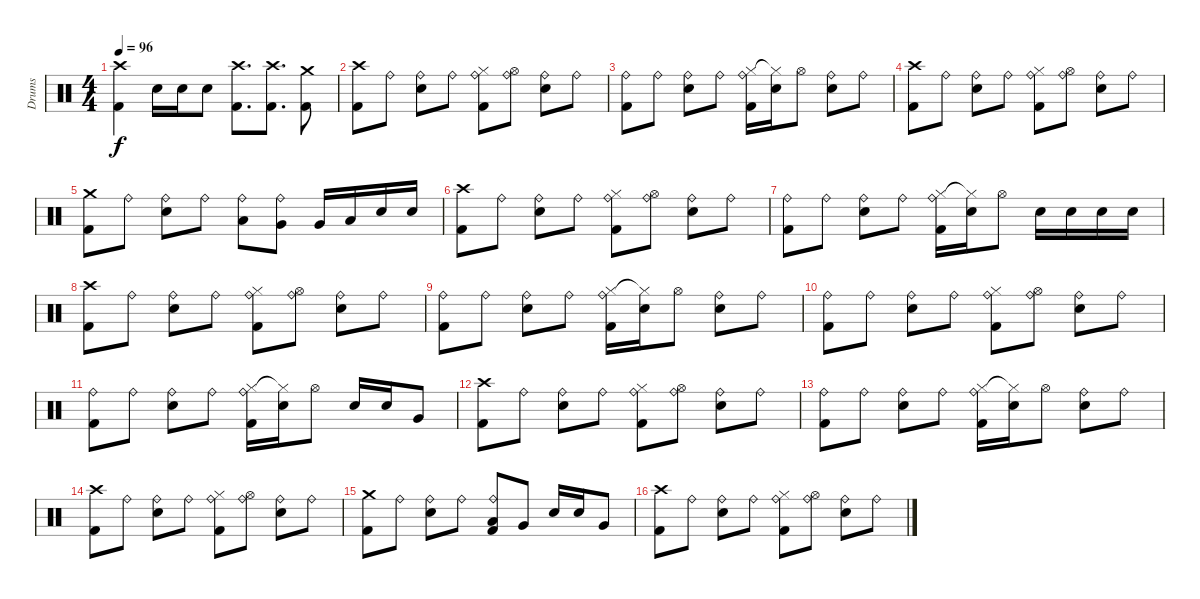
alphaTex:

\track ("Drums" "Drums") {instrument percussion}
\staff {score}
\articulation defaults
\ts (4 4)
\tempo 96
\clef neutral
\ks c
("Crash high (hit)" "Kick (hit) 2").4{dy f} "Electric Snare (hit)".16 "Electric Snare (hit)".16 "Electric Snare (hit)".8 ("Crash high (hit)" "Kick (hit) 2").8{d} ("Crash high (hit)" "Kick (hit) 2").8{d} ("Crash medium (hit)" "Kick (hit) 2").8 |
("Crash high (hit)" "Kick (hit) 2").8 "Ride (bell)".8 ("Ride (bell)" "Electric Snare (hit)").8 "Ride (bell)".8 ("Ride (bell)" "Hi-Hat (closed)" "Kick (hit) 2").8 ("Ride (bell)" "Hi-Hat (open)").8 ("Ride (bell)" "Electric Snare (hit)").8 "Ride (bell)".8 |
("Ride (bell)" "Kick (hit) 2").8 "Ride (bell)".8 ("Ride (bell)" "Electric Snare (hit)").8 "Ride (bell)".8 ("Ride (bell)" "Hi-Hat (closed)" "Kick (hit) 2").16 ("Hi-Hat (closed)"{t} "Electric Snare (hit)").16 "Hi-Hat (open)".8 ("Ride (bell)" "Electric Snare (hit)").8 "Ride (bell)".8 |
("Crash high (hit)" "Kick (hit) 2").8 "Ride (bell)".8 ("Ride (bell)" "Electric Snare (hit)").8 "Ride (bell)".8 ("Ride (bell)" "Hi-Hat (closed)" "Kick (hit) 2").8 ("Ride (bell)" "Hi-Hat (open)").8 ("Ride (bell)" "Electric Snare (hit)").8 "Ride (bell)".8 |
("Crash medium (hit)" "Kick (hit) 2").8 "Ride (bell)".8 ("Ride (bell)" "Electric Snare (hit)").8 "Ride (bell)".8 ("Ride (bell)" "Low Tom (hit)").8 ("Ride (bell)" "Very Low Tom (hit)").8 "Very Low Tom (hit)".16 "Low Tom (hit)".16 "Electric Snare (hit)".16 "Electric Snare (hit)".16 |
("Crash high (hit)" "Kick (hit) 2").8 "Ride (bell)".8 ("Ride (bell)" "Electric Snare (hit)").8 "Ride (bell)".8 ("Ride (bell)" "Hi-Hat (closed)" "Kick (hit) 2").8 ("Ride (bell)" "Hi-Hat (open)").8 ("Ride (bell)" "Electric Snare (hit)").8 "Ride (bell)".8 |
("Ride (bell)" "Kick (hit) 2").8 "Ride (bell)".8 ("Ride (bell)" "Electric Snare (hit)").8 "Ride (bell)".8 ("Ride (bell)" "Hi-Hat (closed)" "Kick (hit) 2").16 ("Hi-Hat (closed)"{t} "Electric Snare (hit)").16 "Hi-Hat (open)".8 "Electric Snare (hit)".16 "Electric Snare (hit)".16 "Electric Snare (hit)".16 "Electric Snare (hit)".16 |
("Crash high (hit)" "Kick (hit) 2").8 "Ride (bell)".8 ("Ride (bell)" "Electric Snare (hit)").8 "Ride (bell)".8 ("Ride (bell)" "Hi-Hat (closed)" "Kick (hit) 2").8 ("Ride (bell)" "Hi-Hat (open)").8 ("Ride (bell)" "Electric Snare (hit)").8 "Ride (bell)".8 |
("Ride (bell)" "Kick (hit) 2").8 "Ride (bell)".8 ("Ride (bell)" "Electric Snare (hit)").8 "Ride (bell)".8 ("Ride (bell)" "Hi-Hat (closed)" "Kick (hit) 2").16 ("Hi-Hat (closed)"{t} "Electric Snare (hit)").16 "Hi-Hat (open)".8 ("Ride (bell)" "Electric Snare (hit)").8 "Ride (bell)".8 |
("Ride (bell)" "Kick (hit) 2").8 "Ride (bell)".8 ("Ride (bell)" "Electric Snare (hit)").8 "Ride (bell)".8 ("Ride (bell)" "Hi-Hat (closed)" "Kick (hit) 2").8 ("Ride (bell)" "Hi-Hat (open)").8 ("Ride (bell)" "Electric Snare (hit)").8 "Ride (bell)".8 |
("Ride (bell)" "Kick (hit) 2").8 "Ride (bell)".8 ("Ride (bell)" "Electric Snare (hit)").8 "Ride (bell)".8 ("Ride (bell)" "Hi-Hat (closed)" "Kick (hit) 2").16 ("Hi-Hat (closed)"{t} "Electric Snare (hit)").16 "Hi-Hat (open)".8 "Electric Snare (hit)".16 "Electric Snare (hit)".16 "Very Low Tom (hit)".8 |
("Crash high (hit)" "Kick (hit) 2").8 "Ride (bell)".8 ("Ride (bell)" "Electric Snare (hit)").8 "Ride (bell)".8 ("Ride (bell)" "Hi-Hat (closed)" "Kick (hit) 2").8 ("Ride (bell)" "Hi-Hat (open)").8 ("Ride (bell)" "Electric Snare (hit)").8 "Ride (bell)".8 |
("Ride (bell)" "Kick (hit) 2").8 "Ride (bell)".8 ("Ride (bell)" "Electric Snare (hit)").8 "Ride (bell)".8 ("Ride (bell)" "Hi-Hat (closed)" "Kick (hit) 2").16 ("Hi-Hat (closed)"{t} "Electric Snare (hit)").16 "Hi-Hat (open)".8 ("Ride (bell)" "Electric Snare (hit)").8 "Ride (bell)".8 |
("Crash high (hit)" "Kick (hit) 2").8 "Ride (bell)".8 ("Ride (bell)" "Electric Snare (hit)").8 "Ride (bell)".8 ("Ride (bell)" "Hi-Hat (closed)" "Kick (hit) 2").8 ("Ride (bell)" "Hi-Hat (open)").8 ("Ride (bell)" "Electric Snare (hit)").8 "Ride (bell)".8 |
("Crash medium (hit)" "Kick (hit) 2").8 "Ride (bell)".8 ("Ride (bell)" "Electric Snare (hit)").8 "Ride (bell)".8 ("Ride (bell)" "Low Tom (hit)" "Kick (hit) 2").8 "Very Low Tom (hit)".8 "Electric Snare (hit)".16 "Electric Snare (hit)".16 "Very Low Tom (hit)".8 |
("Crash high (hit)" "Kick (hit) 2").8 "Ride (bell)".8 ("Ride (bell)" "Electric Snare (hit)").8 "Ride (bell)".8 ("Ride (bell)" "Hi-Hat (closed)" "Kick (hit) 2").8 ("Ride (bell)" "Hi-Hat (open)").8 ("Ride (bell)" "Electric Snare (hit)").8 "Ride (bell)".8
